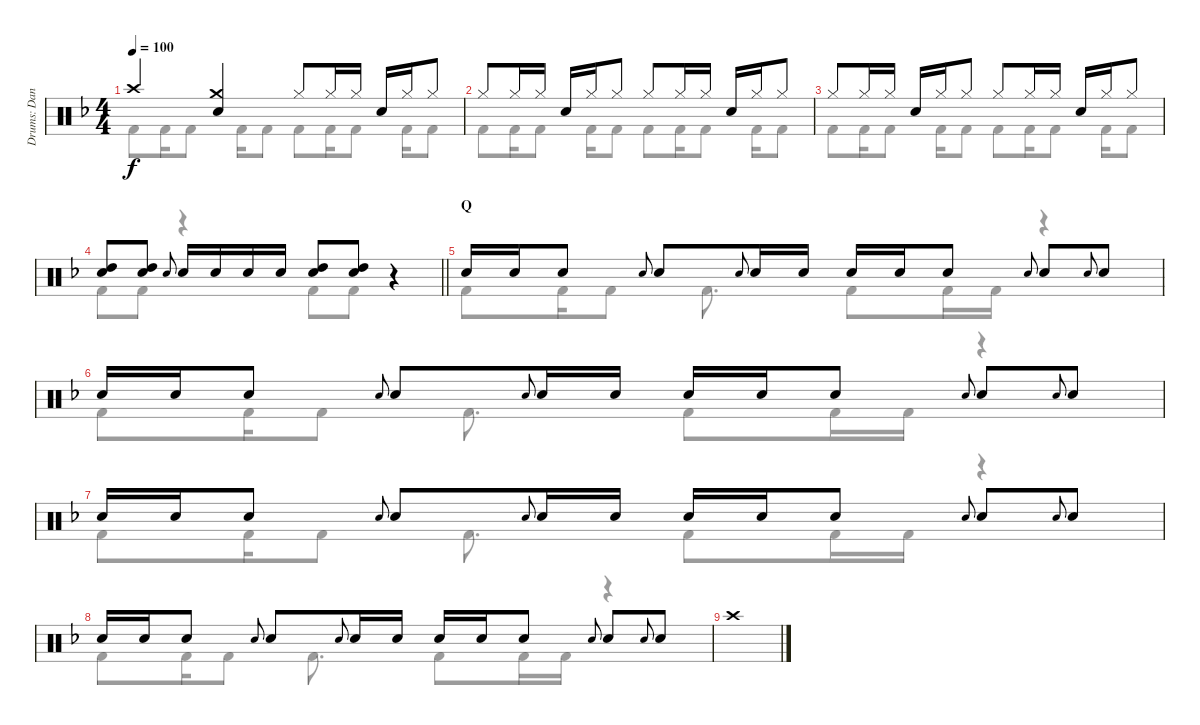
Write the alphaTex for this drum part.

\track ("Drums: Dana" "Drums: Dan") {instrument percussion}
\staff {score}
\articulation defaults
\voice
\ts (4 4)
\tempo 100
\clef neutral
\ks f "Crash high (hit)".4{dy f}
("Crash medium (hit)" "Snare (hit) 2").4 "Hi-Hat (closed)".8 "Hi-Hat (closed)".16 "Hi-Hat (closed)".16 "Snare (hit) 2".16 "Hi-Hat (closed)".16 "Hi-Hat (closed)".8 |
"Hi-Hat (closed)".8 "Hi-Hat (closed)".16 "Hi-Hat (closed)".16 "Snare (hit) 2".16 "Hi-Hat (closed)".16 "Hi-Hat (closed)".8 "Hi-Hat (closed)".8 "Hi-Hat (closed)".16 "Hi-Hat (closed)".16 "Snare (hit) 2".16 "Hi-Hat (closed)".16 "Hi-Hat (closed)".8 |
"Hi-Hat (closed)".8 "Hi-Hat (closed)".16 "Hi-Hat (closed)".16 "Snare (hit) 2".16 "Hi-Hat (closed)".16 "Hi-Hat (closed)".8 "Hi-Hat (closed)".8 "Hi-Hat (closed)".16 "Hi-Hat (closed)".16 "Snare (hit) 2".16 "Hi-Hat (closed)".16 "Hi-Hat (closed)".8 |
\barLineRight lightlight
("Snare (hit) 2" "High Tom (hit)").8 ("Snare (hit) 2" "High Tom (hit)").8 "Electric Snare (hit)".8{gr onbeat} "Snare (hit) 2".16 "Snare (hit) 2".16 "Snare (hit) 2".16 "Snare (hit) 2".16 ("Snare (hit) 2" "High Tom (hit)").8 ("Snare (hit) 2" "High Tom (hit)").8 r.4 |
\section ("" "Q")
"Snare (hit) 2".16 "Snare (hit) 2".16 "Snare (hit) 2".8 "Electric Snare (hit)".8{gr onbeat} "Snare (hit) 2".8 "Electric Snare (hit)".8{gr onbeat} "Snare (hit) 2".16 "Snare (hit) 2".16 "Snare (hit) 2".16 "Snare (hit) 2".16 "Snare (hit) 2".8 "Electric Snare (hit)".8{gr onbeat} "Snare (hit) 2".8 "Electric Snare (hit)".8{gr onbeat} "Snare (hit) 2".8 |
"Snare (hit) 2".16 "Snare (hit) 2".16 "Snare (hit) 2".8 "Electric Snare (hit)".8{gr onbeat} "Snare (hit) 2".8 "Electric Snare (hit)".8{gr onbeat} "Snare (hit) 2".16 "Snare (hit) 2".16 "Snare (hit) 2".16 "Snare (hit) 2".16 "Snare (hit) 2".8 "Electric Snare (hit)".8{gr onbeat} "Snare (hit) 2".8 "Electric Snare (hit)".8{gr onbeat} "Snare (hit) 2".8 |
"Snare (hit) 2".16 "Snare (hit) 2".16 "Snare (hit) 2".8 "Electric Snare (hit)".8{gr onbeat} "Snare (hit) 2".8 "Electric Snare (hit)".8{gr onbeat} "Snare (hit) 2".16 "Snare (hit) 2".16 "Snare (hit) 2".16 "Snare (hit) 2".16 "Snare (hit) 2".8 "Electric Snare (hit)".8{gr onbeat} "Snare (hit) 2".8 "Electric Snare (hit)".8{gr onbeat} "Snare (hit) 2".8 |
"Snare (hit) 2".16 "Snare (hit) 2".16 "Snare (hit) 2".8 "Electric Snare (hit)".8{gr onbeat} "Snare (hit) 2".8 "Electric Snare (hit)".8{gr onbeat} "Snare (hit) 2".16 "Snare (hit) 2".16 "Snare (hit) 2".16 "Snare (hit) 2".16 "Snare (hit) 2".8 "Electric Snare (hit)".8{gr onbeat} "Snare (hit) 2".8 "Electric Snare (hit)".8{gr onbeat} "Snare (hit) 2".8 |
"Crash high (hit)".1
\voice
\clef neutral
\ottava regular
\simile none
\ks f "Kick (hit) 2".8{dy f} "Kick (hit) 2".16 "Kick (hit) 2".8 "Kick (hit) 2".16 "Kick (hit) 2".8 "Kick (hit) 2".8 "Kick (hit) 2".16 "Kick (hit) 2".8 "Kick (hit) 2".16 "Kick (hit) 2".8
|
"Kick (hit) 2".8 "Kick (hit) 2".16 "Kick (hit) 2".8 "Kick (hit) 2".16 "Kick (hit) 2".8 "Kick (hit) 2".8 "Kick (hit) 2".16 "Kick (hit) 2".8 "Kick (hit) 2".16 "Kick (hit) 2".8 |
"Kick (hit) 2".8 "Kick (hit) 2".16 "Kick (hit) 2".8 "Kick (hit) 2".16 "Kick (hit) 2".8 "Kick (hit) 2".8 "Kick (hit) 2".16 "Kick (hit) 2".8 "Kick (hit) 2".16 "Kick (hit) 2".8 |
\barLineRight lightlight "Kick (hit) 2".8 "Kick (hit) 2".8
r.4 "Kick (hit) 2".8 "Kick (hit) 2".8 r.4 |
"Kick (hit) 2".8 "Kick (hit) 2".16 "Kick (hit) 2".8 "Kick (hit) 2".8{d} "Kick (hit) 2".8 "Kick (hit) 2".16 "Kick (hit) 2".16 r.4 |
"Kick (hit) 2".8 "Kick (hit) 2".16 "Kick (hit) 2".8 "Kick (hit) 2".8{d} "Kick (hit) 2".8 "Kick (hit) 2".16 "Kick (hit) 2".16 r.4 |
"Kick (hit) 2".8 "Kick (hit) 2".16 "Kick (hit) 2".8 "Kick (hit) 2".8{d} "Kick (hit) 2".8 "Kick (hit) 2".16 "Kick (hit) 2".16 r.4 |
"Kick (hit) 2".8 "Kick (hit) 2".16 "Kick (hit) 2".8 "Kick (hit) 2".8{d} "Kick (hit) 2".8 "Kick (hit) 2".16 "Kick (hit) 2".16 r.4 |
